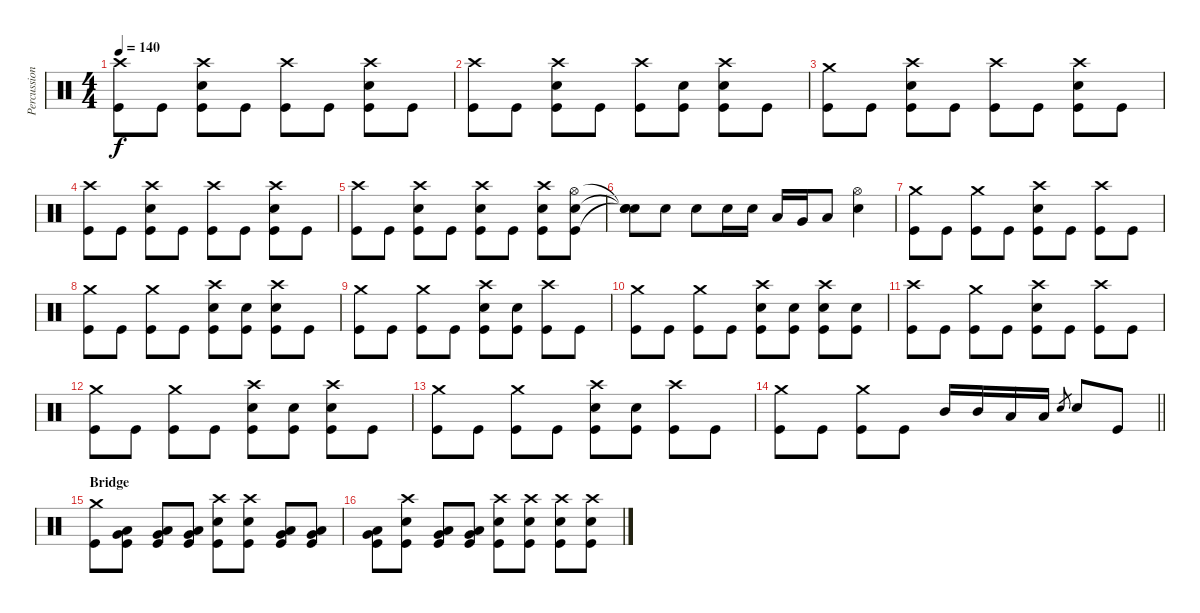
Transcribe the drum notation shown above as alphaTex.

\track ("Percussion" "Percussion") {instrument percussion}
\staff {score}
\articulation defaults
\ts (4 4)
\tempo 140
\clef neutral
\ks c
("Crash high (hit)" "Kick (hit)").8{dy f} "Kick (hit)".8 ("Crash high (hit)" "Electric Snare (hit)" "Kick (hit)").8 "Kick (hit)".8 ("Crash high (hit)" "Kick (hit)").8 "Kick (hit)".8 ("Crash high (hit)" "Electric Snare (hit)" "Kick (hit)").8 "Kick (hit)".8 |
("Crash high (hit)" "Kick (hit)").8 "Kick (hit)".8 ("Crash high (hit)" "Electric Snare (hit)" "Kick (hit)").8 "Kick (hit)".8 ("Crash high (hit)" "Kick (hit)").8 ("Electric Snare (hit)" "Kick (hit)").8 ("Crash high (hit)" "Electric Snare (hit)" "Kick (hit)").8 "Kick (hit)".8 |
("Crash medium (hit)" "Kick (hit)").8 "Kick (hit)".8 ("Crash high (hit)" "Electric Snare (hit)" "Kick (hit)").8 "Kick (hit)".8 ("Crash high (hit)" "Kick (hit)").8 "Kick (hit)".8 ("Crash high (hit)" "Electric Snare (hit)" "Kick (hit)").8 "Kick (hit)".8 |
("Crash high (hit)" "Kick (hit)").8 "Kick (hit)".8 ("Crash high (hit)" "Electric Snare (hit)" "Kick (hit)").8 "Kick (hit)".8 ("Crash high (hit)" "Kick (hit)").8 "Kick (hit)".8 ("Crash high (hit)" "Electric Snare (hit)" "Kick (hit)").8 "Kick (hit)".8 |
("Crash high (hit)" "Kick (hit)").8 "Kick (hit)".8 ("Crash high (hit)" "Electric Snare (hit)" "Kick (hit)").8 "Kick (hit)".8 ("Crash high (hit)" "Electric Snare (hit)" "Kick (hit)").8 "Kick (hit)".8 ("Crash high (hit)" "Electric Snare (hit)" "Kick (hit)").8 ("Hi-Hat (open)" "Electric Snare (hit)" "Kick (hit)").8 |
("Snare (hit)"{t} "Snare (hit)"{t} "Snare (hit)"{t}).8 "Electric Snare (hit)".8 "Electric Snare (hit)".8 "Electric Snare (hit)".16 "Electric Snare (hit)".16 "Low Tom (hit)".16 "Very Low Tom (hit)".16 "Low Floor Tom (hit)".8 ("Hi-Hat (open)" "Electric Snare (hit)").4 |
("Crash medium (hit)" "Kick (hit)").8 "Kick (hit)".8 ("Crash medium (hit)" "Kick (hit)").8 "Kick (hit)".8 ("Crash high (hit)" "Electric Snare (hit)" "Kick (hit)").8 "Kick (hit)".8 ("Crash high (hit)" "Kick (hit)").8 "Kick (hit)".8 |
("Crash medium (hit)" "Kick (hit)").8 "Kick (hit)".8 ("Crash medium (hit)" "Kick (hit)").8 "Kick (hit)".8 ("Crash high (hit)" "Electric Snare (hit)" "Kick (hit)").8 ("Electric Snare (hit)" "Kick (hit)").8 ("Crash high (hit)" "Electric Snare (hit)" "Kick (hit)").8 "Kick (hit)".8 |
("Crash medium (hit)" "Kick (hit)").8 "Kick (hit)".8 ("Crash medium (hit)" "Kick (hit)").8 "Kick (hit)".8 ("Crash high (hit)" "Electric Snare (hit)" "Kick (hit)").8 ("Electric Snare (hit)" "Kick (hit)").8 ("Crash high (hit)" "Kick (hit)").8 "Kick (hit)".8 |
("Crash medium (hit)" "Kick (hit)").8 "Kick (hit)".8 ("Crash medium (hit)" "Kick (hit)").8 "Kick (hit)".8 ("Crash high (hit)" "Electric Snare (hit)" "Kick (hit)").8 ("Electric Snare (hit)" "Kick (hit)").8 ("Crash high (hit)" "Electric Snare (hit)" "Kick (hit)").8 ("Electric Snare (hit)" "Kick (hit)").8 |
("Crash high (hit)" "Kick (hit)").8 "Kick (hit)".8 ("Crash medium (hit)" "Kick (hit)").8 "Kick (hit)".8 ("Crash high (hit)" "Electric Snare (hit)" "Kick (hit)").8 "Kick (hit)".8 ("Crash high (hit)" "Kick (hit)").8 "Kick (hit)".8 |
("Crash medium (hit)" "Kick (hit)").8 "Kick (hit)".8 ("Crash medium (hit)" "Kick (hit)").8 "Kick (hit)".8 ("Crash high (hit)" "Electric Snare (hit)" "Kick (hit)").8 ("Electric Snare (hit)" "Kick (hit)").8 ("Crash high (hit)" "Electric Snare (hit)" "Kick (hit)").8 "Kick (hit)".8 |
("Crash medium (hit)" "Kick (hit)").8 "Kick (hit)".8 ("Crash medium (hit)" "Kick (hit)").8 "Kick (hit)".8 ("Crash high (hit)" "Electric Snare (hit)" "Kick (hit)").8 ("Electric Snare (hit)" "Kick (hit)").8 ("Crash high (hit)" "Kick (hit)").8 "Kick (hit)".8 |
\barLineRight lightlight
("Crash medium (hit)" "Kick (hit)").8 "Kick (hit)".8 ("Crash medium (hit)" "Kick (hit)").8 "Kick (hit)".8 "Mid Tom (hit)".16 "Mid Tom (hit)".16 "Low Tom (hit)".16 "Low Tom (hit)".16 "Electric Snare (hit)".8{gr} "Electric Snare (hit)".8 "Kick (hit)".8 |
\section ("" "Bridge")
("Crash medium (hit)" "Kick (hit)").8 ("Very Low Tom (hit)" "Low Floor Tom (hit)" "Kick (hit)").8 ("Very Low Tom (hit)" "Low Floor Tom (hit)" "Kick (hit)").8 ("Very Low Tom (hit)" "Low Floor Tom (hit)" "Kick (hit)").8 ("Crash high (hit)" "Electric Snare (hit)" "Kick (hit)").8 ("Crash high (hit)" "Electric Snare (hit)" "Kick (hit)").8 ("Very Low Tom (hit)" "Low Floor Tom (hit)" "Kick (hit)").8 ("Very Low Tom (hit)" "Low Floor Tom (hit)" "Kick (hit)").8 |
("Very Low Tom (hit)" "Low Floor Tom (hit)" "Kick (hit)").8 ("Crash high (hit)" "Electric Snare (hit)" "Kick (hit)").8 ("Very Low Tom (hit)" "Low Floor Tom (hit)" "Kick (hit)").8 ("Very Low Tom (hit)" "Low Floor Tom (hit)" "Kick (hit)").8 ("Crash high (hit)" "Electric Snare (hit)" "Kick (hit)").8 ("Crash high (hit)" "Electric Snare (hit)" "Kick (hit)").8 ("Crash high (hit)" "Electric Snare (hit)" "Kick (hit)").8 ("Crash high (hit)" "Electric Snare (hit)" "Kick (hit)").8
